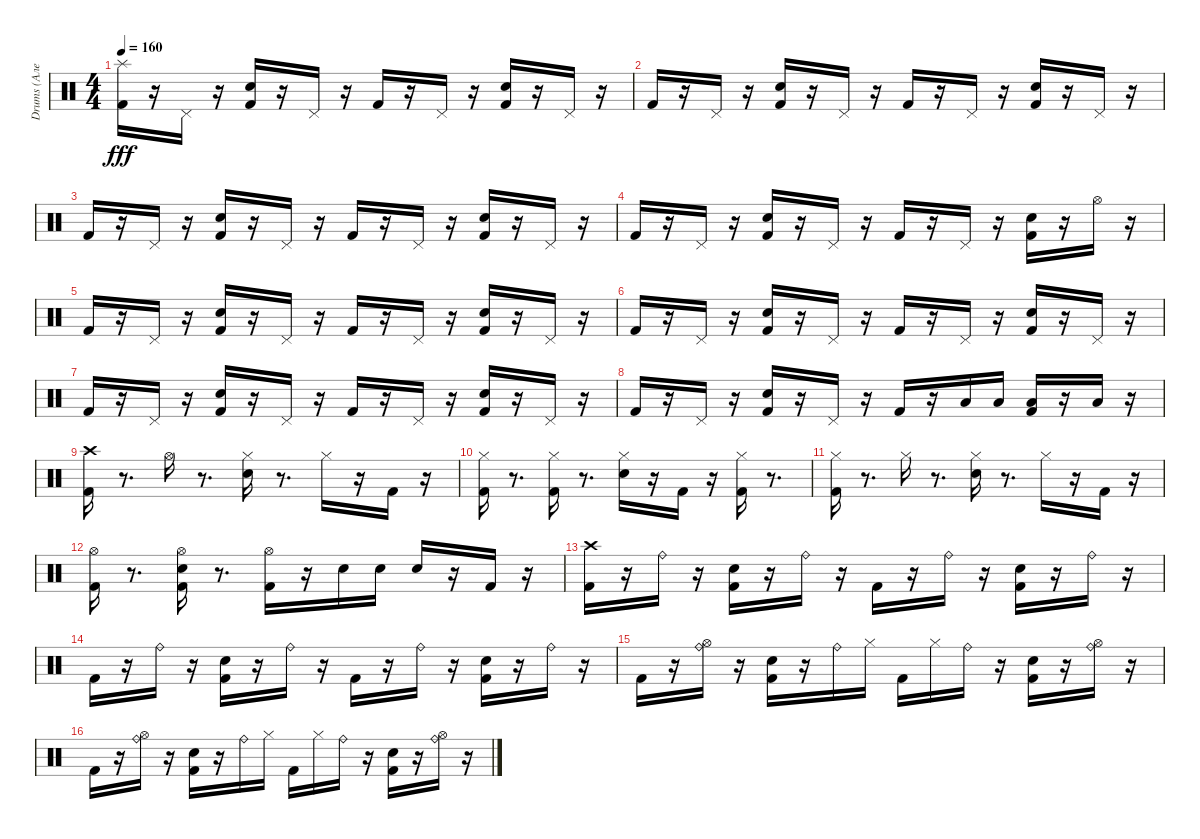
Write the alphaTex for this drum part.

\track ("Drums (Алексей Барзилович)" "Drums (Але") {instrument percussion}
\staff {score}
\articulation defaults
\ts (4 4)
\tempo 160
\clef neutral
\ks c
("Splash (hit)" "Kick (hit) 2").16{dy fff} r.16 "Pedal Hi-Hat (hit)".16 r.16 ("Electric Snare (hit)" "Kick (hit) 2").16 r.16 "Pedal Hi-Hat (hit)".16 r.16 "Kick (hit) 2".16 r.16 "Pedal Hi-Hat (hit)".16 r.16 ("Electric Snare (hit)" "Kick (hit) 2").16 r.16 "Pedal Hi-Hat (hit)".16 r.16 |
"Kick (hit) 2".16 r.16 "Pedal Hi-Hat (hit)".16 r.16 ("Electric Snare (hit)" "Kick (hit) 2").16 r.16 "Pedal Hi-Hat (hit)".16 r.16 "Kick (hit) 2".16 r.16 "Pedal Hi-Hat (hit)".16 r.16 ("Electric Snare (hit)" "Kick (hit) 2").16 r.16 "Pedal Hi-Hat (hit)".16 r.16 |
"Kick (hit) 2".16 r.16 "Pedal Hi-Hat (hit)".16 r.16 ("Electric Snare (hit)" "Kick (hit) 2").16 r.16 "Pedal Hi-Hat (hit)".16 r.16 "Kick (hit) 2".16 r.16 "Pedal Hi-Hat (hit)".16 r.16 ("Electric Snare (hit)" "Kick (hit) 2").16 r.16 "Pedal Hi-Hat (hit)".16 r.16 |
"Kick (hit) 2".16 r.16 "Pedal Hi-Hat (hit)".16 r.16 ("Electric Snare (hit)" "Kick (hit) 2").16 r.16 "Pedal Hi-Hat (hit)".16 r.16 "Kick (hit) 2".16 r.16 "Pedal Hi-Hat (hit)".16 r.16 ("Electric Snare (hit)" "Kick (hit) 2").16 r.16 "Hi-Hat (open)".16 r.16 |
"Kick (hit) 2".16 r.16 "Pedal Hi-Hat (hit)".16 r.16 ("Electric Snare (hit)" "Kick (hit) 2").16 r.16 "Pedal Hi-Hat (hit)".16 r.16 "Kick (hit) 2".16 r.16 "Pedal Hi-Hat (hit)".16 r.16 ("Electric Snare (hit)" "Kick (hit) 2").16 r.16 "Pedal Hi-Hat (hit)".16 r.16 |
"Kick (hit) 2".16 r.16 "Pedal Hi-Hat (hit)".16 r.16 ("Electric Snare (hit)" "Kick (hit) 2").16 r.16 "Pedal Hi-Hat (hit)".16 r.16 "Kick (hit) 2".16 r.16 "Pedal Hi-Hat (hit)".16 r.16 ("Electric Snare (hit)" "Kick (hit) 2").16 r.16 "Pedal Hi-Hat (hit)".16 r.16 |
"Kick (hit) 2".16 r.16 "Pedal Hi-Hat (hit)".16 r.16 ("Electric Snare (hit)" "Kick (hit) 2").16 r.16 "Pedal Hi-Hat (hit)".16 r.16 "Kick (hit) 2".16 r.16 "Pedal Hi-Hat (hit)".16 r.16 ("Electric Snare (hit)" "Kick (hit) 2").16 r.16 "Pedal Hi-Hat (hit)".16 r.16 |
"Kick (hit) 2".16 r.16 "Pedal Hi-Hat (hit)".16 r.16 ("Electric Snare (hit)" "Kick (hit) 2").16 r.16 "Pedal Hi-Hat (hit)".16 r.16 "Kick (hit) 2".16 r.16 "Low Tom (hit)".16 "Low Tom (hit)".16 ("Low Tom (hit)" "Kick (hit) 2").16 r.16 "Low Tom (hit)".16 r.16 |
("Kick (hit) 2" "Crash high (hit)").16 r.8{d} "Hi-Hat (open)".16 r.8{d} ("Hi-Hat (closed)" "Electric Snare (hit)").16 r.8{d} "Hi-Hat (closed)".16 r.16 "Kick (hit) 2".16 r.16 |
("Hi-Hat (closed)" "Kick (hit) 2").16 r.8{d} ("Hi-Hat (closed)" "Kick (hit) 2").16 r.8{d} ("Hi-Hat (closed)" "Electric Snare (hit)").16 r.16 "Kick (hit) 2".16 r.16 ("Kick (hit) 2" "Hi-Hat (closed)").16 r.8{d} |
("Hi-Hat (closed)" "Kick (hit) 2").16 r.8{d} "Hi-Hat (closed)".16 r.8{d} ("Electric Snare (hit)" "Hi-Hat (closed)").16 r.8{d} "Hi-Hat (closed)".16 r.16 "Kick (hit) 2".16 r.16 |
("Kick (hit) 2" "Hi-Hat (open)").16 r.8{d} ("Kick (hit) 2" "Electric Snare (hit)" "Hi-Hat (open)").16 r.8{d} ("Hi-Hat (open)" "Kick (hit) 2").16 r.16 "Electric Snare (hit)".16 "Electric Snare (hit)".16 "Electric Snare (hit)".16 r.16 "Kick (hit) 2".16 r.16 |
("Crash high (hit)" "Kick (hit) 2").16 r.16 "Ride (bell)".16 r.16 ("Electric Snare (hit)" "Kick (hit) 2").16 r.16 "Ride (bell)".16 r.16 "Kick (hit) 2".16 r.16 "Ride (bell)".16 r.16 ("Kick (hit) 2" "Electric Snare (hit)").16 r.16 "Ride (bell)".16 r.16 |
"Kick (hit) 2".16 r.16 "Ride (bell)".16 r.16 ("Kick (hit) 2" "Electric Snare (hit)").16 r.16 "Ride (bell)".16 r.16 "Kick (hit) 2".16 r.16 "Ride (bell)".16 r.16 ("Kick (hit) 2" "Electric Snare (hit)").16 r.16 "Ride (bell)".16 r.16 |
"Kick (hit) 2".16 r.16 ("Ride (bell)" "Hi-Hat (open)").16 r.16 ("Kick (hit) 2" "Electric Snare (hit)").16 r.16 "Ride (bell)".16 "Hi-Hat (closed)".16 "Kick (hit) 2".16 "Hi-Hat (closed)".16 "Ride (bell)".16 r.16 ("Kick (hit) 2" "Electric Snare (hit)").16 r.16 ("Ride (bell)" "Hi-Hat (open)").16 r.16 |
"Kick (hit) 2".16 r.16 ("Hi-Hat (open)" "Ride (bell)").16 r.16 ("Kick (hit) 2" "Electric Snare (hit)").16 r.16 "Ride (bell)".16 "Hi-Hat (closed)".16 "Kick (hit) 2".16 "Hi-Hat (closed)".16 "Ride (bell)".16 r.16 ("Electric Snare (hit)" "Kick (hit) 2").16 r.16 ("Hi-Hat (open)" "Ride (bell)").16 r.16
